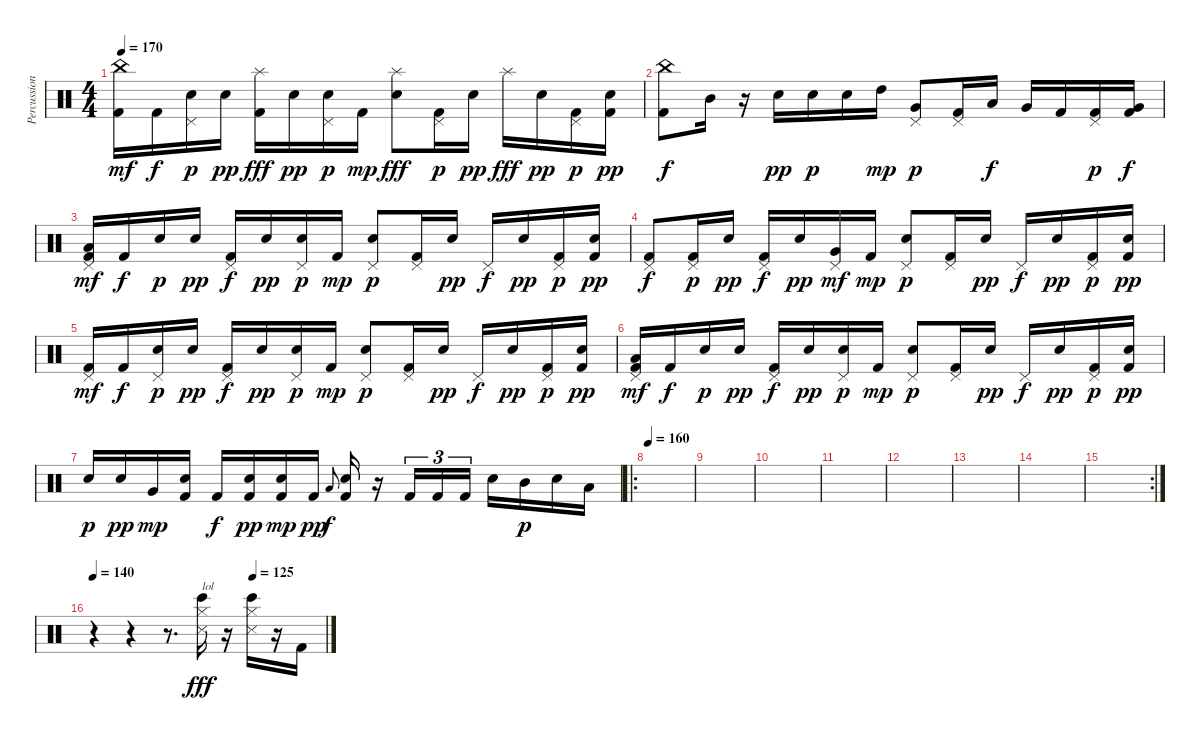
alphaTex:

\track ("Percussion" "Percussion") {instrument percussion}
\staff {score}
\articulation defaults
\ts (4 4)
\tempo 170
\clef neutral
\ks c
("China (hit)" "Kick (hit) 2").16{dy mf} "Kick (hit) 2".16{dy f} ("Pedal Hi-Hat (hit)" "Electric Snare (hit)").16{dy p} "Electric Snare (hit)".16{dy pp} ("Splash (hit)" "Kick (hit) 2").16{dy fff} "Electric Snare (hit)".16{dy pp} ("Pedal Hi-Hat (hit)" "Electric Snare (hit)").16{dy p} "Kick (hit) 2".16{dy mp} ("Splash (hit)" "Electric Snare (hit)").8{dy fff} ("Pedal Hi-Hat (hit)" "Kick (hit) 2").16{dy p} "Electric Snare (hit)".16{dy pp} "Splash (hit)".16{dy fff} "Electric Snare (hit)".16{dy pp} ("Pedal Hi-Hat (hit)" "Kick (hit) 2").16{dy p} ("Electric Snare (hit)" "Kick (hit) 2").16{dy pp} |
("China (hit)" "Kick (hit) 2").8{dy f} "Mid Tom (hit)".16 r.16 "Electric Snare (hit)".16{dy pp} "Electric Snare (hit)".16{dy p} "Electric Snare (hit)".16 "High Tom (hit)".16{dy mp} ("Pedal Hi-Hat (hit)" "Very Low Tom (hit)").8{dy p} ("Pedal Hi-Hat (hit)" "Kick (hit) 2").16 "Low Tom (hit)".16{dy f} "Very Low Tom (hit)".16 "Kick (hit) 2".16 ("Pedal Hi-Hat (hit)" "Kick (hit) 2").16{dy p} ("Very Low Tom (hit)" "Kick (hit) 2").16{dy f} |
("Pedal Hi-Hat (hit)" "Low Floor Tom (hit)" "Kick (hit) 2").16{dy mf} "Kick (hit) 2".16{dy f} "Electric Snare (hit)".16{dy p} "Electric Snare (hit)".16{dy pp} ("Pedal Hi-Hat (hit)" "Kick (hit) 2").16{dy f} "Electric Snare (hit)".16{dy pp} ("Pedal Hi-Hat (hit)" "Electric Snare (hit)").16{dy p} "Kick (hit) 2".16{dy mp} ("Pedal Hi-Hat (hit)" "Electric Snare (hit)").8{dy p} ("Pedal Hi-Hat (hit)" "Kick (hit) 2").16 "Electric Snare (hit)".16{dy pp} "Pedal Hi-Hat (hit)".16{dy f} "Electric Snare (hit)".16{dy pp} ("Pedal Hi-Hat (hit)" "Kick (hit) 2").16{dy p} ("Electric Snare (hit)" "Kick (hit) 2").16{dy pp} |
("Pedal Hi-Hat (hit)" "Kick (hit) 2").8{dy f} ("Pedal Hi-Hat (hit)" "Kick (hit) 2").16{dy p} "Electric Snare (hit)".16{dy pp} ("Pedal Hi-Hat (hit)" "Kick (hit) 2").16{dy f} "Electric Snare (hit)".16{dy pp} ("Pedal Hi-Hat (hit)" "Very Low Tom (hit)").16{dy mf} "Kick (hit) 2".16{dy mp} ("Pedal Hi-Hat (hit)" "Electric Snare (hit)").8{dy p} ("Pedal Hi-Hat (hit)" "Kick (hit) 2").16 "Electric Snare (hit)".16{dy pp} "Pedal Hi-Hat (hit)".16{dy f} "Electric Snare (hit)".16{dy pp} ("Pedal Hi-Hat (hit)" "Kick (hit) 2").16{dy p} ("Electric Snare (hit)" "Kick (hit) 2").16{dy pp} |
("Pedal Hi-Hat (hit)" "Kick (hit) 2").16{dy mf} "Kick (hit) 2".16{dy f} ("Pedal Hi-Hat (hit)" "Electric Snare (hit)").16{dy p} "Electric Snare (hit)".16{dy pp} ("Pedal Hi-Hat (hit)" "Kick (hit) 2").16{dy f} "Electric Snare (hit)".16{dy pp} ("Pedal Hi-Hat (hit)" "Electric Snare (hit)").16{dy p} "Kick (hit) 2".16{dy mp} ("Pedal Hi-Hat (hit)" "Electric Snare (hit)").8{dy p} ("Pedal Hi-Hat (hit)" "Kick (hit) 2").16 "Electric Snare (hit)".16{dy pp} "Pedal Hi-Hat (hit)".16{dy f} "Electric Snare (hit)".16{dy pp} ("Pedal Hi-Hat (hit)" "Kick (hit) 2").16{dy p} ("Electric Snare (hit)" "Kick (hit) 2").16{dy pp} |
("Pedal Hi-Hat (hit)" "Low Floor Tom (hit)" "Kick (hit) 2").16{dy mf} "Kick (hit) 2".16{dy f} "Electric Snare (hit)".16{dy p} "Electric Snare (hit)".16{dy pp} ("Pedal Hi-Hat (hit)" "Kick (hit) 2").16{dy f} "Electric Snare (hit)".16{dy pp} ("Pedal Hi-Hat (hit)" "Electric Snare (hit)").16{dy p} "Kick (hit) 2".16{dy mp} ("Pedal Hi-Hat (hit)" "Electric Snare (hit)").8{dy p} ("Pedal Hi-Hat (hit)" "Kick (hit) 2").16 "Electric Snare (hit)".16{dy pp} "Pedal Hi-Hat (hit)".16{dy f} "Electric Snare (hit)".16{dy pp} ("Pedal Hi-Hat (hit)" "Kick (hit) 2").16{dy p} ("Electric Snare (hit)" "Kick (hit) 2").16{dy pp} |
"Electric Snare (hit)".16{dy p} "Electric Snare (hit)".16{dy pp} "Very Low Tom (hit)".16{dy mp} ("Electric Snare (hit)" "Kick (hit) 2").16 "Kick (hit) 2".16{dy f} ("Electric Snare (hit)" "Kick (hit) 2").16{dy pp} ("Electric Snare (hit)" "Kick (hit) 2").16{dy mp} "Kick (hit) 2".16{dy pp} "Low Floor Tom (hit)".8{gr onbeat dy f} ("Electric Snare (hit)" "Kick (hit) 2").16 r.16 "Kick (hit) 2".16{tu (3 2)} "Kick (hit) 2".16{tu (3 2)} "Kick (hit) 2".16{tu (3 2)} "Electric Snare (hit)".16 "Mid Tom (hit)".16{dy p} "Electric Snare (hit)".16 "Low Tom (hit)".16 |
\ro
\tempo 160
|
|
|
|
|
|
|
\rc 2
|
\tempo 140
\tempo (125 0.6875)
r.4 r.4 r.8{d} ("Bongo High (hit)" "Hi-Hat (closed)" "Metronome (hit)").16{txt "lol" dy fff} r.16 ("Bongo High (hit)" "Hi-Hat (closed)" "Metronome (hit)").16 r.16 "Kick (hit) 2".16
